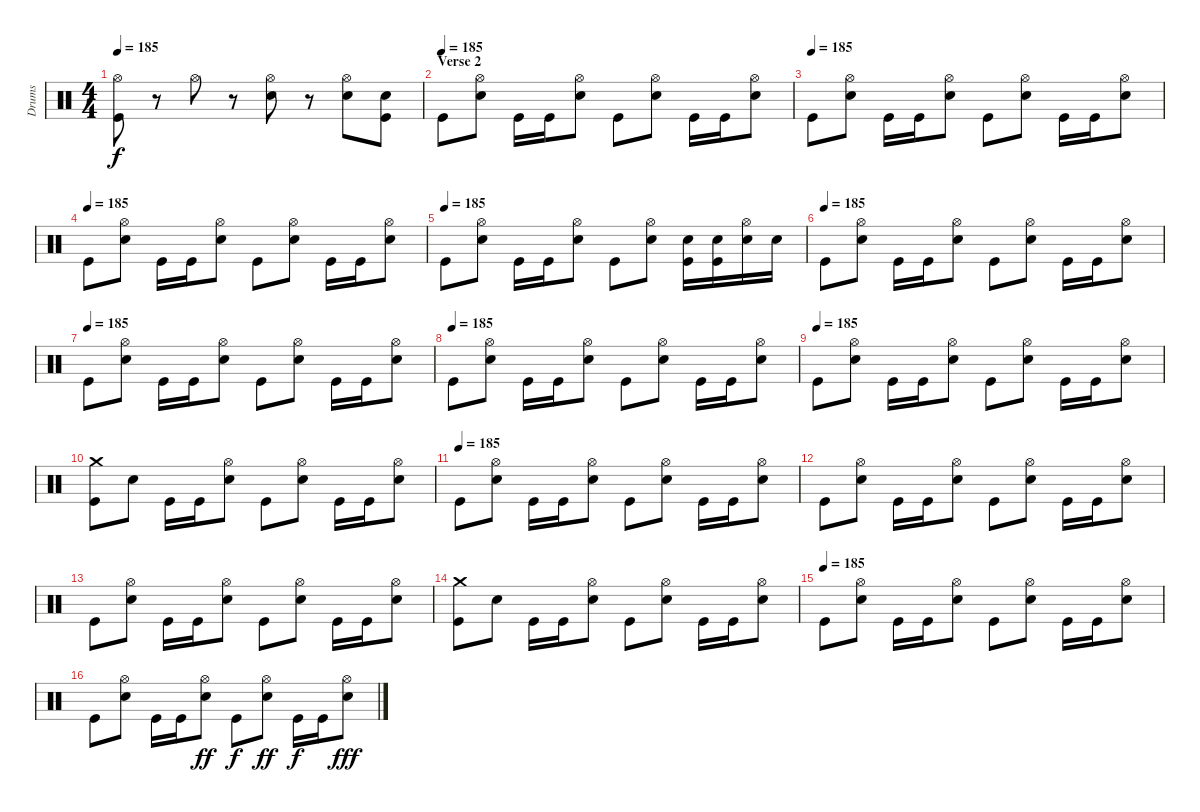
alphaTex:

\track ("Drums" "Drums") {instrument percussion}
\staff {score}
\articulation defaults
\ts (4 4)
\tempo 185
\clef neutral
\ks c
("Hi-Hat (open)" "Kick (hit)").8{dy f} r.8 "Hi-Hat (open)".8 r.8 ("Hi-Hat (open)" "Electric Snare (hit)").8 r.8 ("Hi-Hat (open)" "Electric Snare (hit)").8 ("Electric Snare (hit)" "Kick (hit)").8 |
\section ("" "Verse 2")
\tempo (185)
"Kick (hit)".8 ("Hi-Hat (open)" "Electric Snare (hit)").8 "Kick (hit)".16 "Kick (hit)".16 ("Hi-Hat (open)" "Electric Snare (hit)").8 "Kick (hit)".8 ("Hi-Hat (open)" "Electric Snare (hit)").8 "Kick (hit)".16 "Kick (hit)".16 ("Hi-Hat (open)" "Electric Snare (hit)").8 |
\tempo (185)
"Kick (hit)".8 ("Hi-Hat (open)" "Electric Snare (hit)").8 "Kick (hit)".16 "Kick (hit)".16 ("Hi-Hat (open)" "Electric Snare (hit)").8 "Kick (hit)".8 ("Hi-Hat (open)" "Electric Snare (hit)").8 "Kick (hit)".16 "Kick (hit)".16 ("Hi-Hat (open)" "Electric Snare (hit)").8 |
\tempo (185)
"Kick (hit)".8 ("Hi-Hat (open)" "Electric Snare (hit)").8 "Kick (hit)".16 "Kick (hit)".16 ("Hi-Hat (open)" "Electric Snare (hit)").8 "Kick (hit)".8 ("Hi-Hat (open)" "Electric Snare (hit)").8 "Kick (hit)".16 "Kick (hit)".16 ("Hi-Hat (open)" "Electric Snare (hit)").8 |
\tempo (185)
"Kick (hit)".8 ("Hi-Hat (open)" "Electric Snare (hit)").8 "Kick (hit)".16 "Kick (hit)".16 ("Hi-Hat (open)" "Electric Snare (hit)").8 "Kick (hit)".8 ("Hi-Hat (open)" "Electric Snare (hit)").8 ("Electric Snare (hit)" "Kick (hit)").16 ("Electric Snare (hit)" "Kick (hit)").16 ("Hi-Hat (open)" "Electric Snare (hit)").16 "Electric Snare (hit)".16 |
\tempo (185)
"Kick (hit)".8 ("Hi-Hat (open)" "Electric Snare (hit)").8 "Kick (hit)".16 "Kick (hit)".16 ("Hi-Hat (open)" "Electric Snare (hit)").8 "Kick (hit)".8 ("Hi-Hat (open)" "Electric Snare (hit)").8 "Kick (hit)".16 "Kick (hit)".16 ("Hi-Hat (open)" "Electric Snare (hit)").8 |
\tempo (185)
"Kick (hit)".8 ("Hi-Hat (open)" "Electric Snare (hit)").8 "Kick (hit)".16 "Kick (hit)".16 ("Hi-Hat (open)" "Electric Snare (hit)").8 "Kick (hit)".8 ("Hi-Hat (open)" "Electric Snare (hit)").8 "Kick (hit)".16 "Kick (hit)".16 ("Hi-Hat (open)" "Electric Snare (hit)").8 |
\tempo (185)
"Kick (hit)".8 ("Hi-Hat (open)" "Electric Snare (hit)").8 "Kick (hit)".16 "Kick (hit)".16 ("Hi-Hat (open)" "Electric Snare (hit)").8 "Kick (hit)".8 ("Hi-Hat (open)" "Electric Snare (hit)").8 "Kick (hit)".16 "Kick (hit)".16 ("Hi-Hat (open)" "Electric Snare (hit)").8 |
\tempo (185)
"Kick (hit)".8 ("Hi-Hat (open)" "Electric Snare (hit)").8 "Kick (hit)".16 "Kick (hit)".16 ("Hi-Hat (open)" "Electric Snare (hit)").8 "Kick (hit)".8 ("Hi-Hat (open)" "Electric Snare (hit)").8 "Kick (hit)".16 "Kick (hit)".16 ("Hi-Hat (open)" "Electric Snare (hit)").8 |
("Crash medium (hit)" "Kick (hit)").8 "Electric Snare (hit)".8 "Kick (hit)".16 "Kick (hit)".16 ("Hi-Hat (open)" "Electric Snare (hit)").8 "Kick (hit)".8 ("Hi-Hat (open)" "Electric Snare (hit)").8 "Kick (hit)".16 "Kick (hit)".16 ("Hi-Hat (open)" "Electric Snare (hit)").8 |
\tempo (185)
"Kick (hit)".8 ("Hi-Hat (open)" "Electric Snare (hit)").8 "Kick (hit)".16 "Kick (hit)".16 ("Hi-Hat (open)" "Electric Snare (hit)").8 "Kick (hit)".8 ("Hi-Hat (open)" "Electric Snare (hit)").8 "Kick (hit)".16 "Kick (hit)".16 ("Hi-Hat (open)" "Electric Snare (hit)").8 |
"Kick (hit)".8 ("Hi-Hat (open)" "Electric Snare (hit)").8 "Kick (hit)".16 "Kick (hit)".16 ("Hi-Hat (open)" "Electric Snare (hit)").8 "Kick (hit)".8 ("Hi-Hat (open)" "Electric Snare (hit)").8 "Kick (hit)".16 "Kick (hit)".16 ("Hi-Hat (open)" "Electric Snare (hit)").8 |
"Kick (hit)".8 ("Hi-Hat (open)" "Electric Snare (hit)").8 "Kick (hit)".16 "Kick (hit)".16 ("Hi-Hat (open)" "Electric Snare (hit)").8 "Kick (hit)".8 ("Hi-Hat (open)" "Electric Snare (hit)").8 "Kick (hit)".16 "Kick (hit)".16 ("Hi-Hat (open)" "Electric Snare (hit)").8 |
("Crash medium (hit)" "Kick (hit)").8 "Electric Snare (hit)".8 "Kick (hit)".16 "Kick (hit)".16 ("Hi-Hat (open)" "Electric Snare (hit)").8 "Kick (hit)".8 ("Hi-Hat (open)" "Electric Snare (hit)").8 "Kick (hit)".16 "Kick (hit)".16 ("Hi-Hat (open)" "Electric Snare (hit)").8 |
\tempo (185)
"Kick (hit)".8 ("Hi-Hat (open)" "Electric Snare (hit)").8 "Kick (hit)".16 "Kick (hit)".16 ("Hi-Hat (open)" "Electric Snare (hit)").8 "Kick (hit)".8 ("Hi-Hat (open)" "Electric Snare (hit)").8 "Kick (hit)".16 "Kick (hit)".16 ("Hi-Hat (open)" "Electric Snare (hit)").8 |
"Kick (hit)".8 ("Hi-Hat (open)" "Electric Snare (hit)").8 "Kick (hit)".16 "Kick (hit)".16 ("Hi-Hat (open)" "Electric Snare (hit)").8{dy ff} "Kick (hit)".8{dy f} ("Hi-Hat (open)" "Electric Snare (hit)").8{dy ff} "Kick (hit)".16{dy f} "Kick (hit)".16 ("Hi-Hat (open)" "Electric Snare (hit)").8{dy fff}
